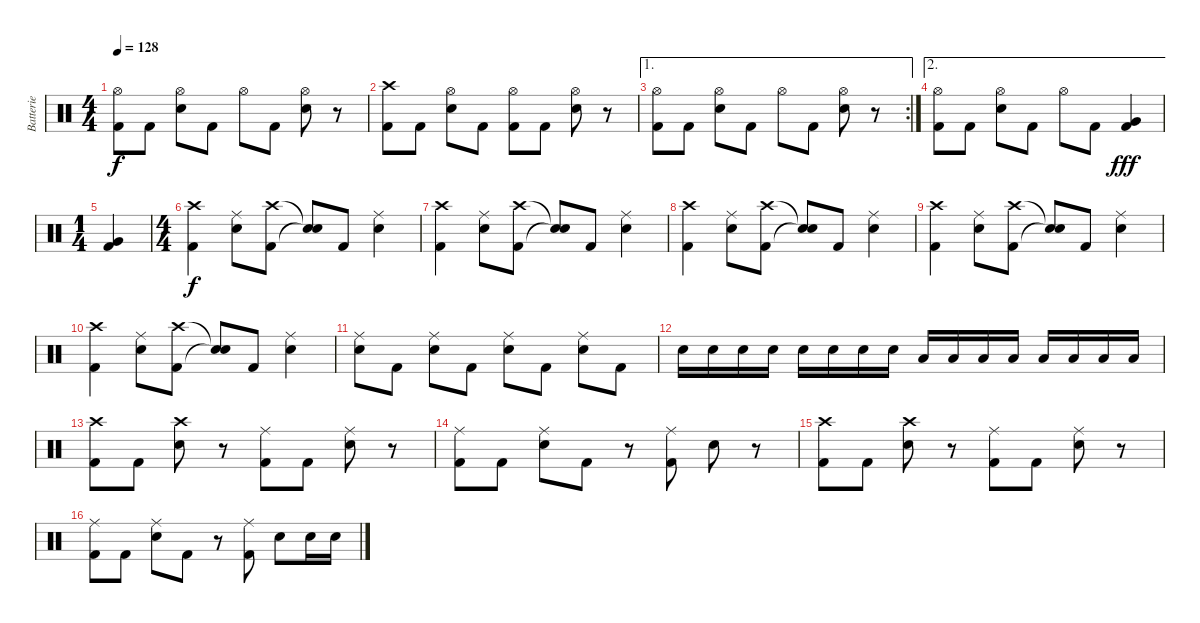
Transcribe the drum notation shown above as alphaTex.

\track ("Batterie" "Batterie") {instrument percussion}
\staff {score}
\articulation defaults
\ts (4 4)
\tempo 128
\clef neutral
\ks c
("Hi-Hat (open)" "Kick (hit) 2").8{dy f} "Kick (hit) 2".8 ("Hi-Hat (open)" "Snare (hit) 2").8 "Kick (hit) 2".8 "Hi-Hat (open)".8 "Kick (hit) 2".8 ("Hi-Hat (open)" "Snare (hit) 2").8 r.8 |
("Crash high (hit)" "Kick (hit) 2").8 "Kick (hit) 2".8 ("Hi-Hat (open)" "Snare (hit) 2").8 "Kick (hit) 2".8 ("Hi-Hat (open)" "Kick (hit) 2").8 "Kick (hit) 2".8 ("Hi-Hat (open)" "Snare (hit) 2").8 r.8 |
\ae 1
\rc 2
("Hi-Hat (open)" "Kick (hit) 2").8 "Kick (hit) 2".8 ("Hi-Hat (open)" "Snare (hit) 2").8 "Kick (hit) 2".8 "Hi-Hat (open)".8 "Kick (hit) 2".8 ("Hi-Hat (open)" "Snare (hit) 2").8 r.8 |
\ae 2
("Hi-Hat (open)" "Kick (hit) 2").8 "Kick (hit) 2".8 ("Hi-Hat (open)" "Snare (hit) 2").8 "Kick (hit) 2".8 "Hi-Hat (open)".8 "Kick (hit) 2".8 ("Very Low Tom (hit)" "Kick (hit) 2").4{dy fff} |
\ts (1 4)
("Very Low Tom (hit)" "Kick (hit) 2").4 |
\ts (4 4)
("Crash high (hit)" "Kick (hit) 2").4{dy f} ("Ride (middle)" "Snare (hit) 2").8 ("Crash high (hit)" "Kick (hit) 2").8 ("Snare (hit)"{t} "Snare (hit)"{t}).8 "Kick (hit) 2".8 ("Ride (middle)" "Snare (hit) 2").4 |
("Crash high (hit)" "Kick (hit) 2").4 ("Ride (middle)" "Snare (hit) 2").8 ("Crash high (hit)" "Kick (hit) 2").8 ("Snare (hit)"{t} "Snare (hit)"{t}).8 "Kick (hit) 2".8 ("Ride (middle)" "Snare (hit) 2").4 |
("Crash high (hit)" "Kick (hit) 2").4 ("Ride (middle)" "Snare (hit) 2").8 ("Crash high (hit)" "Kick (hit) 2").8 ("Snare (hit)"{t} "Snare (hit)"{t}).8 "Kick (hit) 2".8 ("Ride (middle)" "Snare (hit) 2").4 |
("Crash high (hit)" "Kick (hit) 2").4 ("Ride (middle)" "Snare (hit) 2").8 ("Crash high (hit)" "Kick (hit) 2").8 ("Snare (hit)"{t} "Snare (hit)"{t}).8 "Kick (hit) 2".8 ("Ride (middle)" "Snare (hit) 2").4 |
("Crash high (hit)" "Kick (hit) 2").4 ("Ride (middle)" "Snare (hit) 2").8 ("Crash high (hit)" "Kick (hit) 2").8 ("Snare (hit)"{t} "Snare (hit)"{t}).8 "Kick (hit) 2".8 ("Ride (middle)" "Snare (hit) 2").4 |
("Ride (middle)" "Snare (hit) 2").8 "Kick (hit) 2".8 ("Ride (middle)" "Snare (hit) 2").8 "Kick (hit) 2".8 ("Ride (middle)" "Snare (hit) 2").8 "Kick (hit) 2".8 ("Ride (middle)" "Snare (hit) 2").8 "Kick (hit) 2".8 |
"Snare (hit) 2".16 "Snare (hit) 2".16 "Snare (hit) 2".16 "Snare (hit) 2".16 "Snare (hit) 2".16 "Snare (hit) 2".16 "Snare (hit) 2".16 "Snare (hit) 2".16 "Low Tom (hit)".16 "Low Tom (hit)".16 "Low Tom (hit)".16 "Low Tom (hit)".16 "Low Floor Tom (hit)".16 "Low Floor Tom (hit)".16 "Low Floor Tom (hit)".16 "Low Floor Tom (hit)".16 |
("Crash high (hit)" "Kick (hit) 2").8 "Kick (hit) 2".8 ("Crash high (hit)" "Snare (hit) 2").8 r.8 ("Ride (middle)" "Kick (hit) 2").8 "Kick (hit) 2".8 ("Ride (middle)" "Snare (hit) 2").8 r.8 |
("Ride (middle)" "Kick (hit) 2").8 "Kick (hit) 2".8 ("Ride (middle)" "Snare (hit) 2").8 "Kick (hit) 2".8 r.8 ("Ride (middle)" "Kick (hit) 2").8 "Snare (hit) 2".8 r.8 |
("Crash high (hit)" "Kick (hit) 2").8 "Kick (hit) 2".8 ("Crash high (hit)" "Snare (hit) 2").8 r.8 ("Ride (middle)" "Kick (hit) 2").8 "Kick (hit) 2".8 ("Ride (middle)" "Snare (hit) 2").8 r.8 |
("Ride (middle)" "Kick (hit) 2").8 "Kick (hit) 2".8 ("Ride (middle)" "Snare (hit) 2").8 "Kick (hit) 2".8 r.8 ("Ride (middle)" "Kick (hit) 2").8 "Snare (hit) 2".8 "Snare (hit) 2".16 "Snare (hit) 2".16
